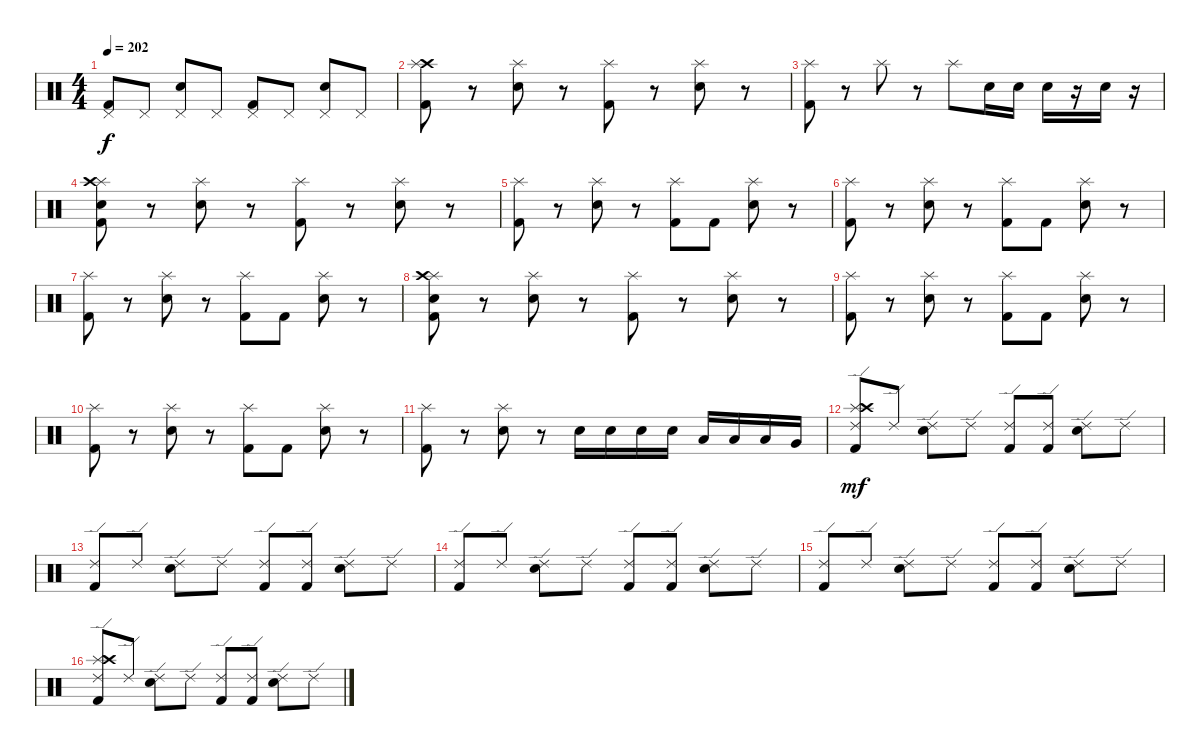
\track "" {instrument percussion}
\staff {score}
\articulation defaults
\ts (4 4)
\tempo 202
\clef neutral
\ks c
("Pedal Hi-Hat (hit)" "Kick (hit) 2").8{dy f} "Pedal Hi-Hat (hit)".8 ("Pedal Hi-Hat (hit)" "Electric Snare (hit)").8 "Pedal Hi-Hat (hit)".8 ("Pedal Hi-Hat (hit)" "Kick (hit) 2").8 "Pedal Hi-Hat (hit)".8 ("Pedal Hi-Hat (hit)" "Electric Snare (hit)").8 "Pedal Hi-Hat (hit)".8 |
("Crash high (hit)" "Splash (hit)" "Kick (hit) 2").8 r.8 ("Splash (hit)" "Electric Snare (hit)").8 r.8 ("Splash (hit)" "Kick (hit) 2").8 r.8 ("Splash (hit)" "Electric Snare (hit)").8 r.8 |
("Splash (hit)" "Kick (hit) 2").8 r.8 "Splash (hit)".8 r.8 "Splash (hit)".8 "Electric Snare (hit)".16 "Electric Snare (hit)".16 "Electric Snare (hit)".16 r.16 "Electric Snare (hit)".16 r.16 |
("Splash (hit)" "Crash high (hit)" "Kick (hit) 2" "Electric Snare (hit)").8 r.8 ("Splash (hit)" "Electric Snare (hit)").8 r.8 ("Splash (hit)" "Kick (hit) 2").8 r.8 ("Splash (hit)" "Electric Snare (hit)").8 r.8 |
("Splash (hit)" "Kick (hit) 2").8 r.8 ("Splash (hit)" "Electric Snare (hit)").8 r.8 ("Splash (hit)" "Kick (hit) 2").8 "Kick (hit) 2".8 ("Splash (hit)" "Electric Snare (hit)").8 r.8 |
("Splash (hit)" "Kick (hit) 2").8 r.8 ("Splash (hit)" "Electric Snare (hit)").8 r.8 ("Splash (hit)" "Kick (hit) 2").8 "Kick (hit) 2".8 ("Splash (hit)" "Electric Snare (hit)").8 r.8 |
("Splash (hit)" "Kick (hit) 2").8 r.8 ("Splash (hit)" "Electric Snare (hit)").8 r.8 ("Splash (hit)" "Kick (hit) 2").8 "Kick (hit) 2".8 ("Splash (hit)" "Electric Snare (hit)").8 r.8 |
("Splash (hit)" "Crash high (hit)" "Kick (hit) 2" "Electric Snare (hit)").8 r.8 ("Splash (hit)" "Electric Snare (hit)").8 r.8 ("Splash (hit)" "Kick (hit) 2").8 r.8 ("Splash (hit)" "Electric Snare (hit)").8 r.8 |
("Splash (hit)" "Kick (hit) 2").8 r.8 ("Splash (hit)" "Electric Snare (hit)").8 r.8 ("Splash (hit)" "Kick (hit) 2").8 "Kick (hit) 2".8 ("Splash (hit)" "Electric Snare (hit)").8 r.8 |
("Splash (hit)" "Kick (hit) 2").8 r.8 ("Splash (hit)" "Electric Snare (hit)").8 r.8 ("Splash (hit)" "Kick (hit) 2").8 "Kick (hit) 2".8 ("Splash (hit)" "Electric Snare (hit)").8 r.8 |
("Splash (hit)" "Kick (hit) 2").8 r.8 ("Splash (hit)" "Electric Snare (hit)").8 r.8 "Electric Snare (hit)".16 "Electric Snare (hit)".16 "Electric Snare (hit)".16 "Electric Snare (hit)".16 "Low Tom (hit)".16 "Low Tom (hit)".16 "Low Tom (hit)".16 "Very Low Tom (hit)".16 |
("Splash (hit)" "Crash high (hit)" "Ride (edge) 2" "Kick (hit) 2").8{dy mf} "Ride (edge) 2".8 ("Ride (edge) 2" "Electric Snare (hit)").8 "Ride (edge) 2".8 ("Ride (edge) 2" "Kick (hit) 2").8 ("Ride (edge) 2" "Kick (hit) 2").8 ("Ride (edge) 2" "Electric Snare (hit)").8 "Ride (edge) 2".8 |
("Ride (edge) 2" "Kick (hit) 2").8 "Ride (edge) 2".8 ("Ride (edge) 2" "Electric Snare (hit)").8 "Ride (edge) 2".8 ("Ride (edge) 2" "Kick (hit) 2").8 ("Ride (edge) 2" "Kick (hit) 2").8 ("Ride (edge) 2" "Electric Snare (hit)").8 "Ride (edge) 2".8 |
("Ride (edge) 2" "Kick (hit) 2").8 "Ride (edge) 2".8 ("Ride (edge) 2" "Electric Snare (hit)").8 "Ride (edge) 2".8 ("Ride (edge) 2" "Kick (hit) 2").8 ("Ride (edge) 2" "Kick (hit) 2").8 ("Ride (edge) 2" "Electric Snare (hit)").8 "Ride (edge) 2".8 |
("Ride (edge) 2" "Kick (hit) 2").8 "Ride (edge) 2".8 ("Ride (edge) 2" "Electric Snare (hit)").8 "Ride (edge) 2".8 ("Ride (edge) 2" "Kick (hit) 2").8 ("Ride (edge) 2" "Kick (hit) 2").8 ("Ride (edge) 2" "Electric Snare (hit)").8 "Ride (edge) 2".8 |
("Splash (hit)" "Crash high (hit)" "Ride (edge) 2" "Kick (hit) 2").8 "Ride (edge) 2".8 ("Ride (edge) 2" "Electric Snare (hit)").8 "Ride (edge) 2".8 ("Ride (edge) 2" "Kick (hit) 2").8 ("Ride (edge) 2" "Kick (hit) 2").8 ("Ride (edge) 2" "Electric Snare (hit)").8 "Ride (edge) 2".8
